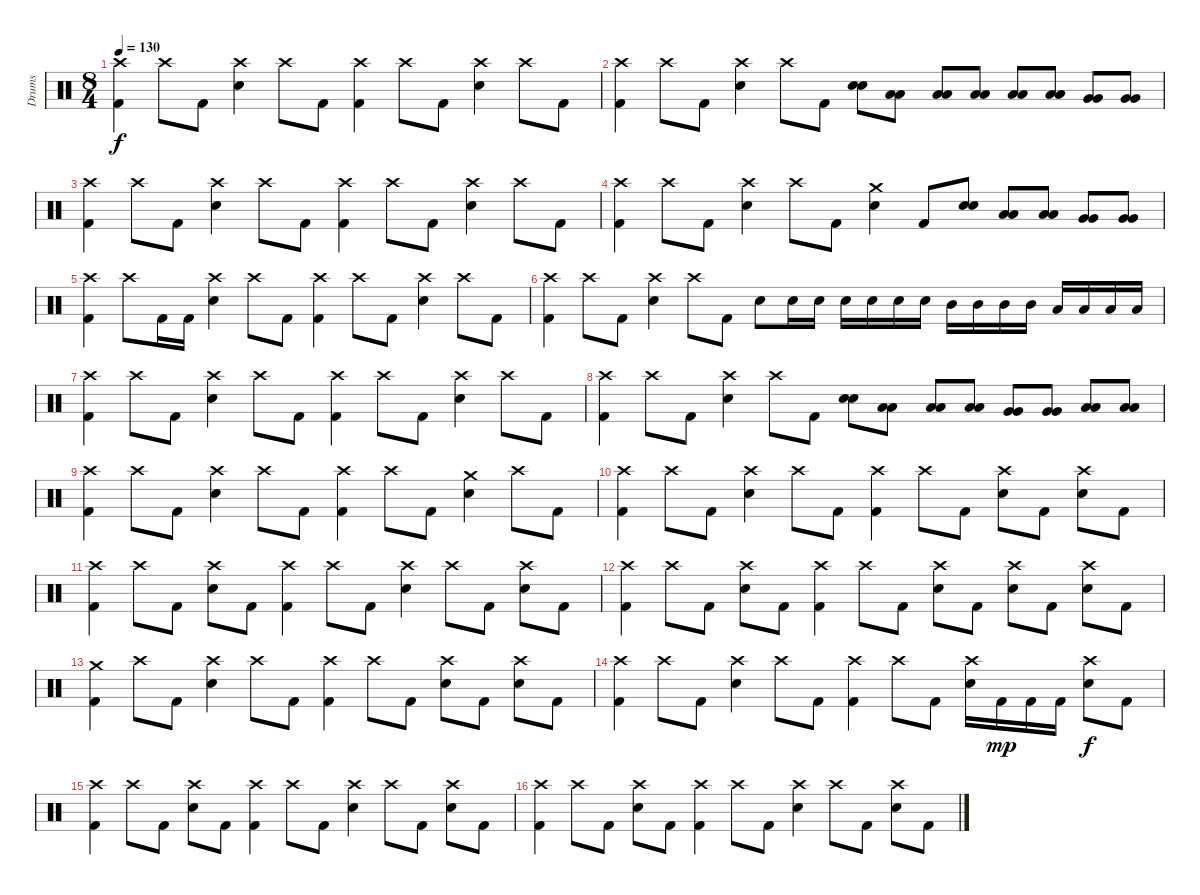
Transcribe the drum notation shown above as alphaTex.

\track ("Drums" "Drums") {instrument percussion}
\staff {score}
\articulation defaults
\ts (8 4)
\tempo 130
\clef neutral
\ks c
("Crash high (hit)" "Kick (hit) 2").4{dy f} "Crash high (hit)".8 "Kick (hit) 2".8 ("Crash high (hit)" "Electric Snare (hit)").4 "Crash high (hit)".8 "Kick (hit) 2".8 ("Crash high (hit)" "Kick (hit) 2").4 "Crash high (hit)".8 "Kick (hit) 2".8 ("Crash high (hit)" "Electric Snare (hit)").4 "Crash high (hit)".8 "Kick (hit) 2".8 |
("Crash high (hit)" "Kick (hit) 2").4 "Crash high (hit)".8 "Kick (hit) 2".8 ("Crash high (hit)" "Electric Snare (hit)").4 "Crash high (hit)".8 "Kick (hit) 2".8 ("Electric Snare (hit)" "Electric Snare (hit)").8{bu 60} ("Low Tom (hit)" "Low Tom (hit)").8 ("Low Tom (hit)" "Low Tom (hit)").8 ("Low Tom (hit)" "Low Tom (hit)").8{bu 60} ("Low Tom (hit)" "Low Tom (hit)").8 ("Low Tom (hit)" "Low Tom (hit)").8 ("Very Low Tom (hit)" "Very Low Tom (hit)").8 ("Very Low Tom (hit)" "Very Low Tom (hit)").8 |
("Crash high (hit)" "Kick (hit) 2").4 "Crash high (hit)".8 "Kick (hit) 2".8 ("Crash high (hit)" "Electric Snare (hit)").4 "Crash high (hit)".8 "Kick (hit) 2".8 ("Crash high (hit)" "Kick (hit) 2").4 "Crash high (hit)".8 "Kick (hit) 2".8 ("Crash high (hit)" "Electric Snare (hit)").4 "Crash high (hit)".8 "Kick (hit) 2".8 |
("Crash high (hit)" "Kick (hit) 2").4 "Crash high (hit)".8 "Kick (hit) 2".8 ("Crash high (hit)" "Electric Snare (hit)").4 "Crash high (hit)".8 "Kick (hit) 2".8 ("Crash medium (hit)" "Electric Snare (hit)").4 "Kick (hit) 2".8 ("Electric Snare (hit)" "Electric Snare (hit)").8{bu 60} ("Low Tom (hit)" "Low Tom (hit)").8{bu 60} ("Low Tom (hit)" "Low Tom (hit)").8{bu 60} ("Very Low Tom (hit)" "Very Low Tom (hit)").8{bu 60} ("Very Low Tom (hit)" "Very Low Tom (hit)").8{bu 60} |
("Crash high (hit)" "Kick (hit) 2").4 "Crash high (hit)".8 "Kick (hit) 2".16 "Kick (hit) 2".16 ("Crash high (hit)" "Electric Snare (hit)").4 "Crash high (hit)".8 "Kick (hit) 2".8 ("Crash high (hit)" "Kick (hit) 2").4 "Crash high (hit)".8 "Kick (hit) 2".8 ("Crash high (hit)" "Electric Snare (hit)").4 "Crash high (hit)".8 "Kick (hit) 2".8 |
("Crash high (hit)" "Kick (hit) 2").4 "Crash high (hit)".8 "Kick (hit) 2".8 ("Crash high (hit)" "Electric Snare (hit)").4 "Crash high (hit)".8 "Kick (hit) 2".8 "Electric Snare (hit)".8 "Electric Snare (hit)".16 "Electric Snare (hit)".16 "Electric Snare (hit)".16 "Electric Snare (hit)".16 "Electric Snare (hit)".16 "Electric Snare (hit)".16 "Mid Tom (hit)".16 "Mid Tom (hit)".16 "Mid Tom (hit)".16 "Mid Tom (hit)".16 "Low Tom (hit)".16 "Low Tom (hit)".16 "Low Tom (hit)".16 "Low Tom (hit)".16 |
("Crash high (hit)" "Kick (hit) 2").4 "Crash high (hit)".8 "Kick (hit) 2".8 ("Crash high (hit)" "Electric Snare (hit)").4 "Crash high (hit)".8 "Kick (hit) 2".8 ("Crash high (hit)" "Kick (hit) 2").4 "Crash high (hit)".8 "Kick (hit) 2".8 ("Crash high (hit)" "Electric Snare (hit)").4 "Crash high (hit)".8 "Kick (hit) 2".8 |
("Crash high (hit)" "Kick (hit) 2").4 "Crash high (hit)".8 "Kick (hit) 2".8 ("Crash high (hit)" "Electric Snare (hit)").4 "Crash high (hit)".8 "Kick (hit) 2".8 ("Electric Snare (hit)" "Electric Snare (hit)").8{bu 60} ("Low Tom (hit)" "Low Tom (hit)").8 ("Low Tom (hit)" "Low Tom (hit)").8 ("Low Tom (hit)" "Low Tom (hit)").8{bu 60} ("Very Low Tom (hit)" "Very Low Tom (hit)").8 ("Very Low Tom (hit)" "Very Low Tom (hit)").8 ("Low Floor Tom (hit)" "Low Floor Tom (hit)").8 ("Low Floor Tom (hit)" "Low Floor Tom (hit)").8 |
("Crash high (hit)" "Kick (hit) 2").4 "Crash high (hit)".8 "Kick (hit) 2".8 ("Crash high (hit)" "Electric Snare (hit)").4 "Crash high (hit)".8 "Kick (hit) 2".8 ("Crash high (hit)" "Kick (hit) 2").4 "Crash high (hit)".8 "Kick (hit) 2".8 ("Crash medium (hit)" "Electric Snare (hit)").4 "Crash high (hit)".8 "Kick (hit) 2".8 |
("Crash high (hit)" "Kick (hit) 2").4 "Crash high (hit)".8 "Kick (hit) 2".8 ("Crash high (hit)" "Electric Snare (hit)").4 "Crash high (hit)".8 "Kick (hit) 2".8 ("Crash high (hit)" "Kick (hit) 2").4 "Crash high (hit)".8 "Kick (hit) 2".8 ("Crash high (hit)" "Electric Snare (hit)").8 "Kick (hit) 2".8 ("Crash high (hit)" "Electric Snare (hit)").8 "Kick (hit) 2".8 |
("Crash high (hit)" "Kick (hit) 2").4 "Crash high (hit)".8 "Kick (hit) 2".8 ("Crash high (hit)" "Electric Snare (hit)").8 "Kick (hit) 2".8 ("Crash high (hit)" "Kick (hit) 2").4 "Crash high (hit)".8 "Kick (hit) 2".8 ("Crash high (hit)" "Electric Snare (hit)").4 "Crash high (hit)".8 "Kick (hit) 2".8 ("Crash high (hit)" "Electric Snare (hit)").8 "Kick (hit) 2".8 |
("Crash high (hit)" "Kick (hit) 2").4 "Crash high (hit)".8 "Kick (hit) 2".8 ("Crash high (hit)" "Electric Snare (hit)").8 "Kick (hit) 2".8 ("Crash high (hit)" "Kick (hit) 2").4 "Crash high (hit)".8 "Kick (hit) 2".8 ("Crash high (hit)" "Electric Snare (hit)").8 "Kick (hit) 2".8 ("Crash high (hit)" "Electric Snare (hit)").8 "Kick (hit) 2".8 ("Crash high (hit)" "Electric Snare (hit)").8 "Kick (hit) 2".8 |
("Crash medium (hit)" "Kick (hit) 2").4 "Crash high (hit)".8 "Kick (hit) 2".8 ("Crash high (hit)" "Electric Snare (hit)").4 "Crash high (hit)".8 "Kick (hit) 2".8 ("Crash high (hit)" "Kick (hit) 2").4 "Crash high (hit)".8 "Kick (hit) 2".8 ("Crash high (hit)" "Electric Snare (hit)").8 "Kick (hit) 2".8 ("Crash high (hit)" "Electric Snare (hit)").8 "Kick (hit) 2".8 |
("Crash high (hit)" "Kick (hit) 2").4 "Crash high (hit)".8 "Kick (hit) 2".8 ("Crash high (hit)" "Electric Snare (hit)").4 "Crash high (hit)".8 "Kick (hit) 2".8 ("Crash high (hit)" "Kick (hit) 2").4 "Crash high (hit)".8 "Kick (hit) 2".8 ("Crash high (hit)" "Electric Snare (hit)").16 "Kick (hit) 2".16{dy mp} "Kick (hit) 2".16 "Kick (hit) 2".16 ("Crash high (hit)" "Electric Snare (hit)").8{dy f} "Kick (hit) 2".8 |
("Crash high (hit)" "Kick (hit) 2").4 "Crash high (hit)".8 "Kick (hit) 2".8 ("Crash high (hit)" "Electric Snare (hit)").8 "Kick (hit) 2".8 ("Crash high (hit)" "Kick (hit) 2").4 "Crash high (hit)".8 "Kick (hit) 2".8 ("Crash high (hit)" "Electric Snare (hit)").4 "Crash high (hit)".8 "Kick (hit) 2".8 ("Crash high (hit)" "Electric Snare (hit)").8 "Kick (hit) 2".8 |
("Crash high (hit)" "Kick (hit) 2").4 "Crash high (hit)".8 "Kick (hit) 2".8 ("Crash high (hit)" "Electric Snare (hit)").8 "Kick (hit) 2".8 ("Crash high (hit)" "Kick (hit) 2").4 "Crash high (hit)".8 "Kick (hit) 2".8 ("Crash high (hit)" "Electric Snare (hit)").4 "Crash high (hit)".8 "Kick (hit) 2".8 ("Crash high (hit)" "Electric Snare (hit)").8 "Kick (hit) 2".8
